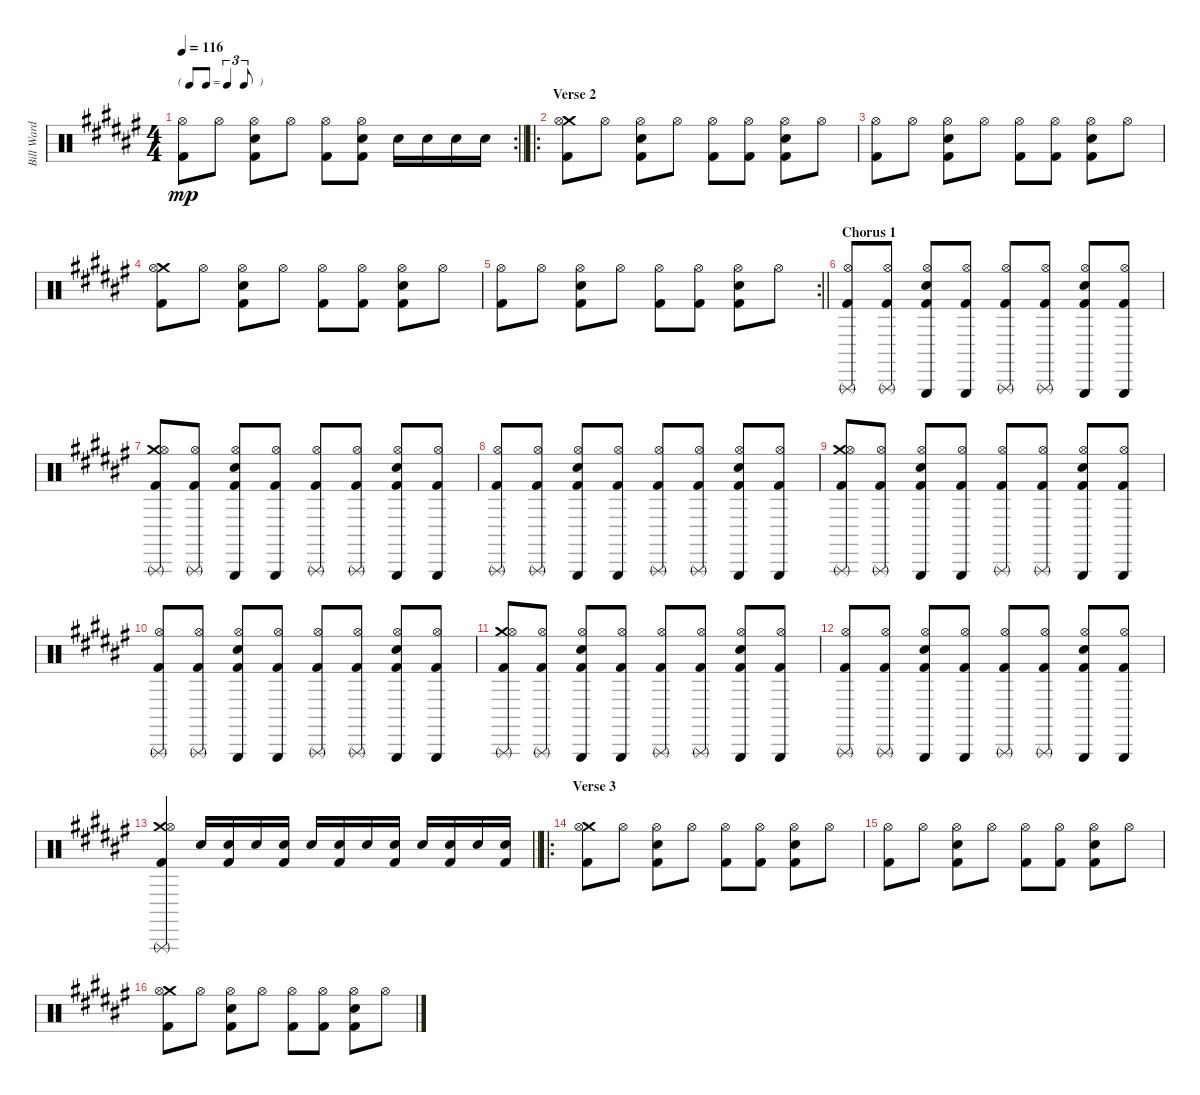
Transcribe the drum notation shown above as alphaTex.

\track ("Bill Ward" "Bill Ward") {instrument percussion}
\staff {score}
\articulation defaults
\rc 2
\ts (4 4)
\tf triplet8th
\tempo 116
\clef neutral
\barLineRight lightlight
\ks f#
("Hi-Hat (open)" "Kick (hit) 2").8{dy mp} "Hi-Hat (open)".8 ("Hi-Hat (open)" "Snare (hit) 2" "Kick (hit) 2").8 "Hi-Hat (open)".8 ("Hi-Hat (open)" "Kick (hit) 2").8 ("Hi-Hat (open)" "Snare (hit) 2" "Kick (hit) 2").8 "Snare (hit) 2".16 "Snare (hit) 2".16 "Snare (hit) 2".16 "Snare (hit) 2".16 |
\ro
\section ("" "Verse 2")
("Crash medium (hit)" "Hi-Hat (open)" "Kick (hit) 2").8 "Hi-Hat (open)".8 ("Hi-Hat (open)" "Snare (hit) 2" "Kick (hit) 2").8 "Hi-Hat (open)".8 ("Hi-Hat (open)" "Kick (hit) 2").8 ("Hi-Hat (open)" "Kick (hit) 2").8 ("Hi-Hat (open)" "Snare (hit) 2" "Kick (hit) 2").8 "Hi-Hat (open)".8 |
("Hi-Hat (open)" "Kick (hit) 2").8 "Hi-Hat (open)".8 ("Hi-Hat (open)" "Snare (hit) 2" "Kick (hit) 2").8 "Hi-Hat (open)".8 ("Hi-Hat (open)" "Kick (hit) 2").8 ("Hi-Hat (open)" "Kick (hit) 2").8 ("Hi-Hat (open)" "Snare (hit) 2" "Kick (hit) 2").8 "Hi-Hat (open)".8 |
("Crash medium (hit)" "Hi-Hat (open)" "Kick (hit) 2").8 "Hi-Hat (open)".8 ("Hi-Hat (open)" "Snare (hit) 2" "Kick (hit) 2").8 "Hi-Hat (open)".8 ("Hi-Hat (open)" "Kick (hit) 2").8 ("Hi-Hat (open)" "Kick (hit) 2").8 ("Hi-Hat (open)" "Snare (hit) 2" "Kick (hit) 2").8 "Hi-Hat (open)".8 |
\rc 2
\barLineRight lightlight
("Hi-Hat (open)" "Kick (hit) 2").8 "Hi-Hat (open)".8 ("Hi-Hat (open)" "Snare (hit) 2" "Kick (hit) 2").8 "Hi-Hat (open)".8 ("Hi-Hat (open)" "Kick (hit) 2").8 ("Hi-Hat (open)" "Kick (hit) 2").8 ("Hi-Hat (open)" "Snare (hit) 2" "Kick (hit) 2").8 "Hi-Hat (open)".8 |
\section ("" "Chorus 1")
("Hi-Hat (open)" "Triangle (rnute)" "Kick (hit) 2").8 ("Hi-Hat (open)" "Triangle (rnute)" "Kick (hit) 2").8 ("Hi-Hat (open)" "Snare (hit) 2" "Triangle (hit)" "Kick (hit) 2").8 ("Hi-Hat (open)" "Triangle (hit)" "Kick (hit) 2").8 ("Hi-Hat (open)" "Triangle (rnute)" "Kick (hit) 2").8 ("Hi-Hat (open)" "Triangle (rnute)" "Kick (hit) 2").8 ("Hi-Hat (open)" "Snare (hit) 2" "Triangle (hit)" "Kick (hit) 2").8 ("Hi-Hat (open)" "Triangle (hit)" "Kick (hit) 2").8 |
("Crash medium (hit)" "Hi-Hat (open)" "Triangle (rnute)" "Kick (hit) 2").8 ("Hi-Hat (open)" "Triangle (rnute)" "Kick (hit) 2").8 ("Hi-Hat (open)" "Snare (hit) 2" "Triangle (hit)" "Kick (hit) 2").8 ("Hi-Hat (open)" "Triangle (hit)" "Kick (hit) 2").8 ("Hi-Hat (open)" "Triangle (rnute)" "Kick (hit) 2").8 ("Hi-Hat (open)" "Triangle (rnute)" "Kick (hit) 2").8 ("Hi-Hat (open)" "Snare (hit) 2" "Triangle (hit)" "Kick (hit) 2").8 ("Hi-Hat (open)" "Triangle (hit)" "Kick (hit) 2").8 |
("Hi-Hat (open)" "Triangle (rnute)" "Kick (hit) 2").8 ("Hi-Hat (open)" "Triangle (rnute)" "Kick (hit) 2").8 ("Hi-Hat (open)" "Snare (hit) 2" "Triangle (hit)" "Kick (hit) 2").8 ("Hi-Hat (open)" "Triangle (hit)" "Kick (hit) 2").8 ("Hi-Hat (open)" "Triangle (rnute)" "Kick (hit) 2").8 ("Hi-Hat (open)" "Triangle (rnute)" "Kick (hit) 2").8 ("Hi-Hat (open)" "Snare (hit) 2" "Triangle (hit)" "Kick (hit) 2").8 ("Hi-Hat (open)" "Triangle (hit)" "Kick (hit) 2").8 |
("Crash medium (hit)" "Hi-Hat (open)" "Triangle (rnute)" "Kick (hit) 2").8 ("Hi-Hat (open)" "Triangle (rnute)" "Kick (hit) 2").8 ("Hi-Hat (open)" "Snare (hit) 2" "Triangle (hit)" "Kick (hit) 2").8 ("Hi-Hat (open)" "Triangle (hit)" "Kick (hit) 2").8 ("Hi-Hat (open)" "Triangle (rnute)" "Kick (hit) 2").8 ("Hi-Hat (open)" "Triangle (rnute)" "Kick (hit) 2").8 ("Hi-Hat (open)" "Snare (hit) 2" "Triangle (hit)" "Kick (hit) 2").8 ("Hi-Hat (open)" "Triangle (hit)" "Kick (hit) 2").8 |
("Hi-Hat (open)" "Triangle (rnute)" "Kick (hit) 2").8 ("Hi-Hat (open)" "Triangle (rnute)" "Kick (hit) 2").8 ("Hi-Hat (open)" "Snare (hit) 2" "Triangle (hit)" "Kick (hit) 2").8 ("Hi-Hat (open)" "Triangle (hit)" "Kick (hit) 2").8 ("Hi-Hat (open)" "Triangle (rnute)" "Kick (hit) 2").8 ("Hi-Hat (open)" "Triangle (rnute)" "Kick (hit) 2").8 ("Hi-Hat (open)" "Snare (hit) 2" "Triangle (hit)" "Kick (hit) 2").8 ("Hi-Hat (open)" "Triangle (hit)" "Kick (hit) 2").8 |
("Crash medium (hit)" "Hi-Hat (open)" "Triangle (rnute)" "Kick (hit) 2").8 ("Hi-Hat (open)" "Triangle (rnute)" "Kick (hit) 2").8 ("Hi-Hat (open)" "Snare (hit) 2" "Triangle (hit)" "Kick (hit) 2").8 ("Hi-Hat (open)" "Triangle (hit)" "Kick (hit) 2").8 ("Hi-Hat (open)" "Triangle (rnute)" "Kick (hit) 2").8 ("Hi-Hat (open)" "Triangle (rnute)" "Kick (hit) 2").8 ("Hi-Hat (open)" "Snare (hit) 2" "Triangle (hit)" "Kick (hit) 2").8 ("Hi-Hat (open)" "Triangle (hit)" "Kick (hit) 2").8 |
("Hi-Hat (open)" "Triangle (rnute)" "Kick (hit) 2").8 ("Hi-Hat (open)" "Triangle (rnute)" "Kick (hit) 2").8 ("Hi-Hat (open)" "Snare (hit) 2" "Triangle (hit)" "Kick (hit) 2").8 ("Hi-Hat (open)" "Triangle (hit)" "Kick (hit) 2").8 ("Hi-Hat (open)" "Triangle (rnute)" "Kick (hit) 2").8 ("Hi-Hat (open)" "Triangle (rnute)" "Kick (hit) 2").8 ("Hi-Hat (open)" "Snare (hit) 2" "Triangle (hit)" "Kick (hit) 2").8 ("Hi-Hat (open)" "Triangle (hit)" "Kick (hit) 2").8 |
\barLineRight lightlight
("Crash medium (hit)" "Hi-Hat (open)" "Triangle (rnute)" "Kick (hit) 2").4 "Snare (hit) 2".16 ("Snare (hit) 2" "Kick (hit) 2").16 "Snare (hit) 2".16 ("Snare (hit) 2" "Kick (hit) 2").16 "Snare (hit) 2".16 ("Snare (hit) 2" "Kick (hit) 2").16 "Snare (hit) 2".16 ("Snare (hit) 2" "Kick (hit) 2").16 "Snare (hit) 2".16 ("Snare (hit) 2" "Kick (hit) 2").16 "Snare (hit) 2".16 ("Snare (hit) 2" "Kick (hit) 2").16 |
\ro
\section ("" "Verse 3")
("Crash medium (hit)" "Hi-Hat (open)" "Kick (hit) 2").8 "Hi-Hat (open)".8 ("Hi-Hat (open)" "Snare (hit) 2" "Kick (hit) 2").8 "Hi-Hat (open)".8 ("Hi-Hat (open)" "Kick (hit) 2").8 ("Hi-Hat (open)" "Kick (hit) 2").8 ("Hi-Hat (open)" "Snare (hit) 2" "Kick (hit) 2").8 "Hi-Hat (open)".8 |
("Hi-Hat (open)" "Kick (hit) 2").8 "Hi-Hat (open)".8 ("Hi-Hat (open)" "Snare (hit) 2" "Kick (hit) 2").8 "Hi-Hat (open)".8 ("Hi-Hat (open)" "Kick (hit) 2").8 ("Hi-Hat (open)" "Kick (hit) 2").8 ("Hi-Hat (open)" "Snare (hit) 2" "Kick (hit) 2").8 "Hi-Hat (open)".8 |
("Crash medium (hit)" "Hi-Hat (open)" "Kick (hit) 2").8 "Hi-Hat (open)".8 ("Hi-Hat (open)" "Snare (hit) 2" "Kick (hit) 2").8 "Hi-Hat (open)".8 ("Hi-Hat (open)" "Kick (hit) 2").8 ("Hi-Hat (open)" "Kick (hit) 2").8 ("Hi-Hat (open)" "Snare (hit) 2" "Kick (hit) 2").8 "Hi-Hat (open)".8
